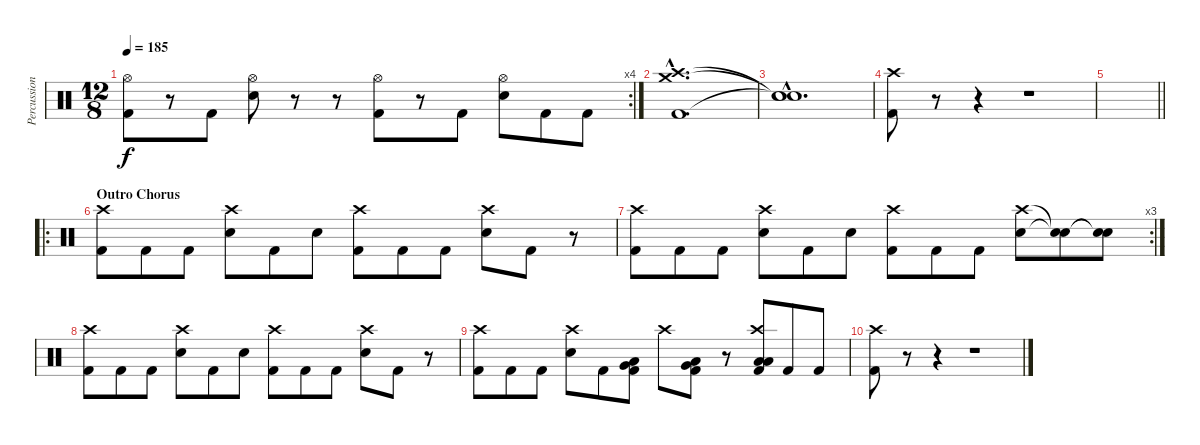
\track ("Percussion" "Percussion") {instrument percussion}
\staff {score}
\articulation defaults
\rc 4
\ts (12 8)
\tempo 185
\clef neutral
\ks c
("Hi-Hat (open)" "Kick (hit) 2").8{dy f} r.8 "Kick (hit) 2".8 ("Hi-Hat (open)" "Electric Snare (hit)").8 r.8 r.8 ("Hi-Hat (open)" "Kick (hit) 2").8 r.8 "Kick (hit) 2".8 ("Hi-Hat (open)" "Electric Snare (hit)").8 "Kick (hit) 2".8 "Kick (hit) 2".8 |
("Crash high (hit)"{hac} "Crash medium (hit)"{hac} "Kick (hit) 2"{hac}).1{d} |
("Snare (hit)"{hac t} "Snare (hit)"{hac t} "Snare (hit)"{hac t}).1{d} |
("Crash high (hit)" "Kick (hit) 2").8 r.8 r.4 r.1 |
\barLineRight lightlight
|
\ro
\section ("" "Outro Chorus")
("Crash high (hit)" "Kick (hit) 2").8 "Kick (hit) 2".8 "Kick (hit) 2".8 ("Crash high (hit)" "Electric Snare (hit)").8 "Kick (hit) 2".8 "Electric Snare (hit)".8 ("Crash high (hit)" "Kick (hit) 2").8 "Kick (hit) 2".8 "Kick (hit) 2".8 ("Crash high (hit)" "Electric Snare (hit)").8 "Kick (hit) 2".8 r.8 |
\rc 3
("Crash high (hit)" "Kick (hit) 2").8 "Kick (hit) 2".8 "Kick (hit) 2".8 ("Crash high (hit)" "Electric Snare (hit)").8 "Kick (hit) 2".8 "Electric Snare (hit)".8 ("Crash high (hit)" "Kick (hit) 2").8 "Kick (hit) 2".8 "Kick (hit) 2".8 ("Crash high (hit)" "Electric Snare (hit)").8 ("Snare (hit)"{t} "Snare (hit)"{t}).8 ("Snare (hit)"{t} "Snare (hit)"{t}).8 |
("Crash high (hit)" "Kick (hit) 2").8 "Kick (hit) 2".8 "Kick (hit) 2".8 ("Crash high (hit)" "Electric Snare (hit)").8 "Kick (hit) 2".8 "Electric Snare (hit)".8 ("Crash high (hit)" "Kick (hit) 2").8 "Kick (hit) 2".8 "Kick (hit) 2".8 ("Crash high (hit)" "Electric Snare (hit)").8 "Kick (hit) 2".8 r.8 |
("Crash high (hit)" "Kick (hit) 2").8 "Kick (hit) 2".8 "Kick (hit) 2".8 ("Crash high (hit)" "Electric Snare (hit)").8 "Kick (hit) 2".8 ("Low Tom (hit)" "Very Low Tom (hit)" "Kick (hit) 2").8 "Crash high (hit)".8 ("Very Low Tom (hit)" "Low Floor Tom (hit)" "Kick (hit) 2").8 r.8 ("Crash high (hit)" "Low Floor Tom (hit)" "Low Floor Tom (hit)" "Kick (hit) 2").8 "Kick (hit) 2".8 "Kick (hit) 2".8 |
("Crash high (hit)" "Kick (hit) 2").8 r.8 r.4 r.1
